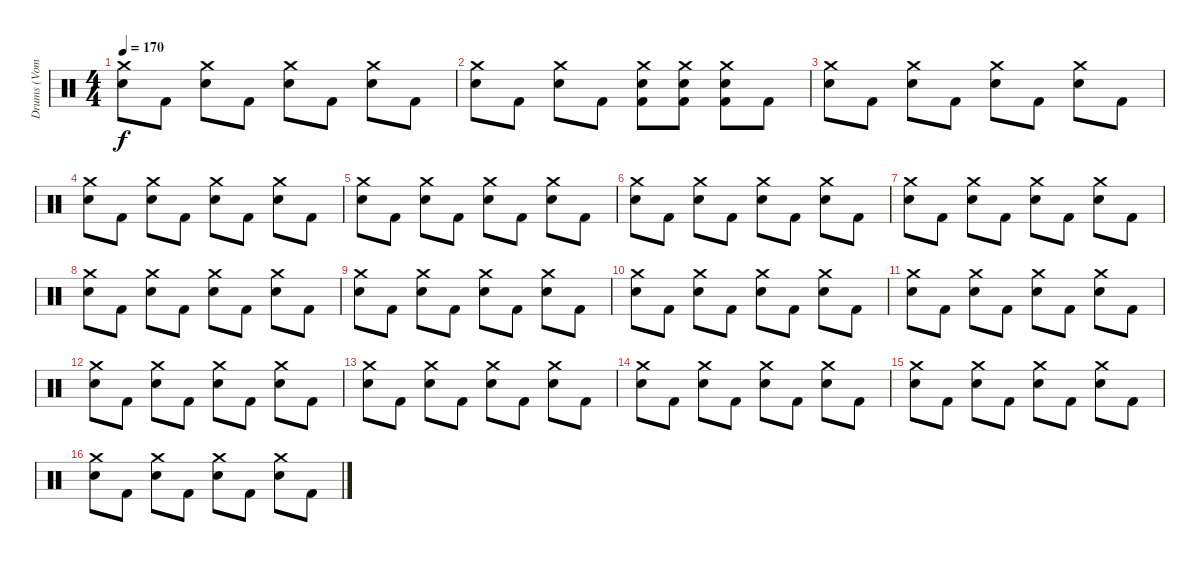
\track ("Drums (Vom)" "Drums (Vom") {instrument percussion}
\staff {score}
\articulation defaults
\ts (4 4)
\tempo 170
\clef neutral
\ks c
("Crash medium (hit)" "Snare (hit) 2").8{dy f} "Kick (hit) 2".8 ("Crash medium (hit)" "Snare (hit) 2").8 "Kick (hit) 2".8 ("Crash medium (hit)" "Snare (hit) 2").8 "Kick (hit) 2".8 ("Crash medium (hit)" "Snare (hit) 2").8 "Kick (hit) 2".8 |
("Crash medium (hit)" "Snare (hit) 2").8 "Kick (hit) 2".8 ("Crash medium (hit)" "Snare (hit) 2").8 "Kick (hit) 2".8 ("Crash medium (hit)" "Snare (hit) 2" "Kick (hit) 2").8 ("Crash medium (hit)" "Snare (hit) 2" "Kick (hit) 2").8 ("Crash medium (hit)" "Snare (hit) 2" "Kick (hit) 2").8 "Kick (hit) 2".8 |
("Crash medium (hit)" "Snare (hit) 2").8 "Kick (hit) 2".8 ("Crash medium (hit)" "Snare (hit) 2").8 "Kick (hit) 2".8 ("Crash medium (hit)" "Snare (hit) 2").8 "Kick (hit) 2".8 ("Crash medium (hit)" "Snare (hit) 2").8 "Kick (hit) 2".8 |
("Crash medium (hit)" "Snare (hit) 2").8 "Kick (hit) 2".8 ("Crash medium (hit)" "Snare (hit) 2").8 "Kick (hit) 2".8 ("Crash medium (hit)" "Snare (hit) 2").8 "Kick (hit) 2".8 ("Crash medium (hit)" "Snare (hit) 2").8 "Kick (hit) 2".8 |
("Crash medium (hit)" "Snare (hit) 2").8 "Kick (hit) 2".8 ("Crash medium (hit)" "Snare (hit) 2").8 "Kick (hit) 2".8 ("Crash medium (hit)" "Snare (hit) 2").8 "Kick (hit) 2".8 ("Crash medium (hit)" "Snare (hit) 2").8 "Kick (hit) 2".8 |
("Crash medium (hit)" "Snare (hit) 2").8 "Kick (hit) 2".8 ("Crash medium (hit)" "Snare (hit) 2").8 "Kick (hit) 2".8 ("Crash medium (hit)" "Snare (hit) 2").8 "Kick (hit) 2".8 ("Crash medium (hit)" "Snare (hit) 2").8 "Kick (hit) 2".8 |
("Crash medium (hit)" "Snare (hit) 2").8 "Kick (hit) 2".8 ("Crash medium (hit)" "Snare (hit) 2").8 "Kick (hit) 2".8 ("Crash medium (hit)" "Snare (hit) 2").8 "Kick (hit) 2".8 ("Crash medium (hit)" "Snare (hit) 2").8 "Kick (hit) 2".8 |
("Crash medium (hit)" "Snare (hit) 2").8 "Kick (hit) 2".8 ("Crash medium (hit)" "Snare (hit) 2").8 "Kick (hit) 2".8 ("Crash medium (hit)" "Snare (hit) 2").8 "Kick (hit) 2".8 ("Crash medium (hit)" "Snare (hit) 2").8 "Kick (hit) 2".8 |
("Crash medium (hit)" "Snare (hit) 2").8 "Kick (hit) 2".8 ("Crash medium (hit)" "Snare (hit) 2").8 "Kick (hit) 2".8 ("Crash medium (hit)" "Snare (hit) 2").8 "Kick (hit) 2".8 ("Crash medium (hit)" "Snare (hit) 2").8 "Kick (hit) 2".8 |
("Crash medium (hit)" "Snare (hit) 2").8 "Kick (hit) 2".8 ("Crash medium (hit)" "Snare (hit) 2").8 "Kick (hit) 2".8 ("Crash medium (hit)" "Snare (hit) 2").8 "Kick (hit) 2".8 ("Crash medium (hit)" "Snare (hit) 2").8 "Kick (hit) 2".8 |
("Crash medium (hit)" "Snare (hit) 2").8 "Kick (hit) 2".8 ("Crash medium (hit)" "Snare (hit) 2").8 "Kick (hit) 2".8 ("Crash medium (hit)" "Snare (hit) 2").8 "Kick (hit) 2".8 ("Crash medium (hit)" "Snare (hit) 2").8 "Kick (hit) 2".8 |
("Crash medium (hit)" "Snare (hit) 2").8 "Kick (hit) 2".8 ("Crash medium (hit)" "Snare (hit) 2").8 "Kick (hit) 2".8 ("Crash medium (hit)" "Snare (hit) 2").8 "Kick (hit) 2".8 ("Crash medium (hit)" "Snare (hit) 2").8 "Kick (hit) 2".8 |
("Crash medium (hit)" "Snare (hit) 2").8 "Kick (hit) 2".8 ("Crash medium (hit)" "Snare (hit) 2").8 "Kick (hit) 2".8 ("Crash medium (hit)" "Snare (hit) 2").8 "Kick (hit) 2".8 ("Crash medium (hit)" "Snare (hit) 2").8 "Kick (hit) 2".8 |
("Crash medium (hit)" "Snare (hit) 2").8 "Kick (hit) 2".8 ("Crash medium (hit)" "Snare (hit) 2").8 "Kick (hit) 2".8 ("Crash medium (hit)" "Snare (hit) 2").8 "Kick (hit) 2".8 ("Crash medium (hit)" "Snare (hit) 2").8 "Kick (hit) 2".8 |
("Crash medium (hit)" "Snare (hit) 2").8 "Kick (hit) 2".8 ("Crash medium (hit)" "Snare (hit) 2").8 "Kick (hit) 2".8 ("Crash medium (hit)" "Snare (hit) 2").8 "Kick (hit) 2".8 ("Crash medium (hit)" "Snare (hit) 2").8 "Kick (hit) 2".8 |
("Crash medium (hit)" "Snare (hit) 2").8 "Kick (hit) 2".8 ("Crash medium (hit)" "Snare (hit) 2").8 "Kick (hit) 2".8 ("Crash medium (hit)" "Snare (hit) 2").8 "Kick (hit) 2".8 ("Crash medium (hit)" "Snare (hit) 2").8 "Kick (hit) 2".8
